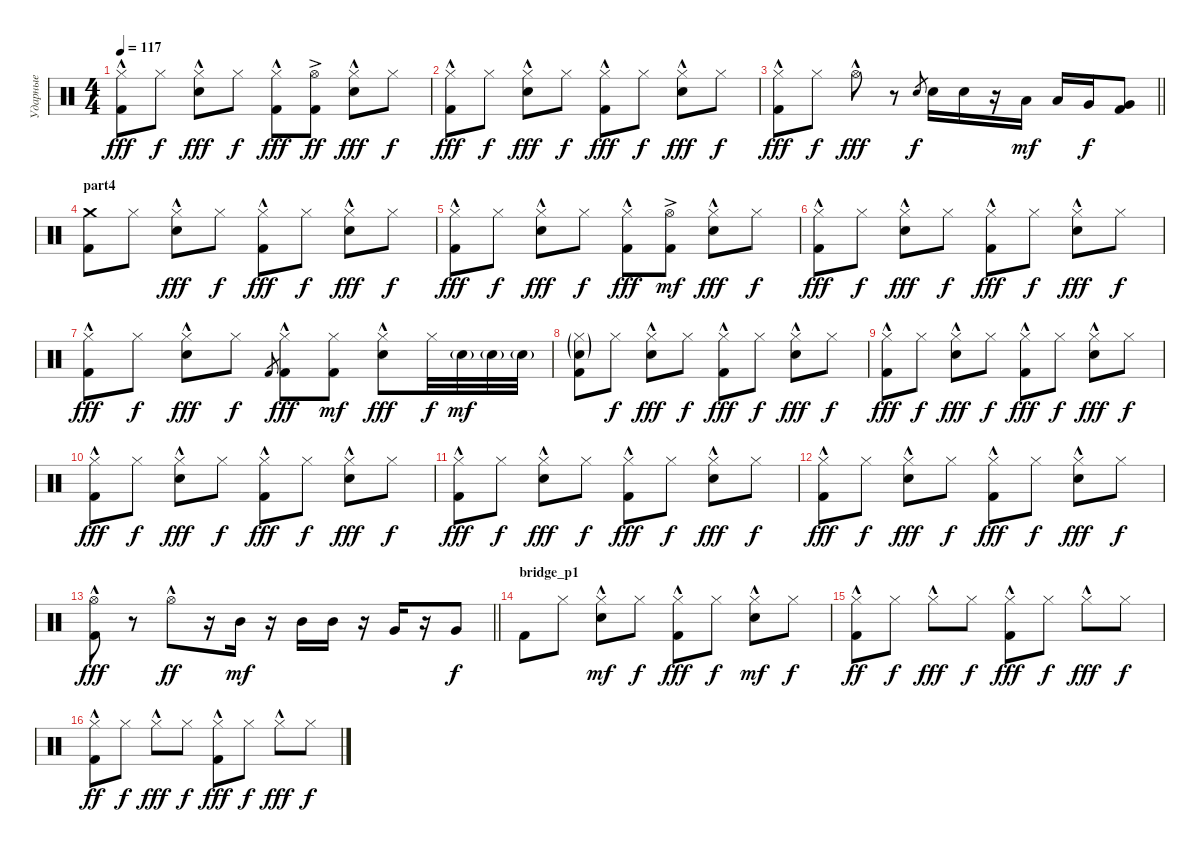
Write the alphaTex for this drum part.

\track ("Ударные" "Ударные") {instrument percussion}
\staff {score}
\articulation defaults
\ts (4 4)
\tempo 117
\clef neutral
\ks c
("Hi-Hat (closed)"{hac} "Kick (hit) 2").8{dy fff} "Hi-Hat (closed)".8{dy f} ("Hi-Hat (closed)"{hac} "Electric Snare (hit)").8{dy fff} "Hi-Hat (closed)".8{dy f} ("Hi-Hat (closed)"{hac} "Kick (hit) 2").8{dy fff} ("Hi-Hat (open)"{ac} "Kick (hit) 2").8{dy ff} ("Hi-Hat (closed)"{hac} "Electric Snare (hit)").8{dy fff} "Hi-Hat (closed)".8{dy f} |
("Hi-Hat (closed)"{hac} "Kick (hit) 2").8{dy fff} "Hi-Hat (closed)".8{dy f} ("Hi-Hat (closed)"{hac} "Electric Snare (hit)").8{dy fff} "Hi-Hat (closed)".8{dy f} ("Hi-Hat (closed)"{hac} "Kick (hit) 2").8{dy fff} "Hi-Hat (closed)".8{dy f} ("Hi-Hat (closed)"{hac} "Electric Snare (hit)").8{dy fff} "Hi-Hat (closed)".8{dy f} |
\barLineRight lightlight
("Hi-Hat (closed)"{hac} "Kick (hit) 2").8{dy fff} "Hi-Hat (closed)".8{dy f} "Hi-Hat (open)"{hac}.8{dy fff} r.8 "Electric Snare (hit)".8{gr dy f} "Electric Snare (hit)".16 "Electric Snare (hit)".16 r.16 "Low Tom (hit)".16{dy mf} "Low Tom (hit)".16 "Very Low Tom (hit)".16{dy f} ("Very Low Tom (hit)" "Kick (hit) 2").8 |
\section ("" "part4")
("Crash medium (hit)" "Kick (hit) 2").8 "Hi-Hat (closed)".8 ("Hi-Hat (closed)"{hac} "Electric Snare (hit)").8{dy fff} "Hi-Hat (closed)".8{dy f} ("Hi-Hat (closed)"{hac} "Kick (hit) 2").8{dy fff} "Hi-Hat (closed)".8{dy f} ("Hi-Hat (closed)"{hac} "Electric Snare (hit)").8{dy fff} "Hi-Hat (closed)".8{dy f} |
("Hi-Hat (closed)"{hac} "Kick (hit) 2").8{dy fff} "Hi-Hat (closed)".8{dy f} ("Hi-Hat (closed)"{hac} "Electric Snare (hit)").8{dy fff} "Hi-Hat (closed)".8{dy f} ("Hi-Hat (closed)"{hac} "Kick (hit) 2").8{dy fff} ("Hi-Hat (open)"{ac} "Kick (hit) 2").8{dy mf} ("Hi-Hat (closed)"{hac} "Electric Snare (hit)").8{dy fff} "Hi-Hat (closed)".8{dy f} |
("Hi-Hat (closed)"{hac} "Kick (hit) 2").8{dy fff} "Hi-Hat (closed)".8{dy f} ("Hi-Hat (closed)"{hac} "Electric Snare (hit)").8{dy fff} "Hi-Hat (closed)".8{dy f} ("Hi-Hat (closed)"{hac} "Kick (hit) 2").8{dy fff} "Hi-Hat (closed)".8{dy f} ("Hi-Hat (closed)"{hac} "Electric Snare (hit)").8{dy fff} "Hi-Hat (closed)".8{dy f} |
("Hi-Hat (closed)"{hac} "Kick (hit) 2").8{dy fff} "Hi-Hat (closed)".8{dy f} ("Hi-Hat (closed)"{hac} "Electric Snare (hit)").8{dy fff} "Hi-Hat (closed)".8{dy f} "Kick (hit) 2".8{gr} ("Hi-Hat (closed)"{hac} "Kick (hit) 2").8{dy fff} ("Hi-Hat (closed)" "Kick (hit) 2").8{dy mf} ("Hi-Hat (closed)"{hac} "Electric Snare (hit)").8{dy fff} "Hi-Hat (closed)".32{dy f} "Electric Snare (hit)"{g}.32{dy mf} "Electric Snare (hit)"{g}.32 "Electric Snare (hit)"{g}.32 |
("Hi-Hat (closed)"{g} "Electric Snare (hit)"{g} "Kick (hit) 2").8 "Hi-Hat (closed)".8{dy f} ("Hi-Hat (closed)"{hac} "Electric Snare (hit)").8{dy fff} "Hi-Hat (closed)".8{dy f} ("Hi-Hat (closed)"{hac} "Kick (hit) 2").8{dy fff} "Hi-Hat (closed)".8{dy f} ("Hi-Hat (closed)"{hac} "Electric Snare (hit)").8{dy fff} "Hi-Hat (closed)".8{dy f} |
("Hi-Hat (closed)"{hac} "Kick (hit) 2").8{dy fff} "Hi-Hat (closed)".8{dy f} ("Hi-Hat (closed)"{hac} "Electric Snare (hit)").8{dy fff} "Hi-Hat (closed)".8{dy f} ("Hi-Hat (closed)"{hac} "Kick (hit) 2").8{dy fff} "Hi-Hat (closed)".8{dy f} ("Hi-Hat (closed)"{hac} "Electric Snare (hit)").8{dy fff} "Hi-Hat (closed)".8{dy f} |
("Hi-Hat (closed)"{hac} "Kick (hit) 2").8{dy fff} "Hi-Hat (closed)".8{dy f} ("Hi-Hat (closed)"{hac} "Electric Snare (hit)").8{dy fff} "Hi-Hat (closed)".8{dy f} ("Hi-Hat (closed)"{hac} "Kick (hit) 2").8{dy fff} "Hi-Hat (closed)".8{dy f} ("Hi-Hat (closed)"{hac} "Electric Snare (hit)").8{dy fff} "Hi-Hat (closed)".8{dy f} |
("Hi-Hat (closed)"{hac} "Kick (hit) 2").8{dy fff} "Hi-Hat (closed)".8{dy f} ("Hi-Hat (closed)"{hac} "Electric Snare (hit)").8{dy fff} "Hi-Hat (closed)".8{dy f} ("Hi-Hat (closed)"{hac} "Kick (hit) 2").8{dy fff} "Hi-Hat (closed)".8{dy f} ("Hi-Hat (closed)"{hac} "Electric Snare (hit)").8{dy fff} "Hi-Hat (closed)".8{dy f} |
("Hi-Hat (closed)"{hac} "Kick (hit) 2").8{dy fff} "Hi-Hat (closed)".8{dy f} ("Hi-Hat (closed)"{hac} "Electric Snare (hit)").8{dy fff} "Hi-Hat (closed)".8{dy f} ("Hi-Hat (closed)"{hac} "Kick (hit) 2").8{dy fff} "Hi-Hat (closed)".8{dy f} ("Hi-Hat (closed)"{hac} "Electric Snare (hit)").8{dy fff} "Hi-Hat (closed)".8{dy f} |
\barLineRight lightlight
("Hi-Hat (open)"{hac} "Kick (hit) 2").8{dy fff} r.8 "Hi-Hat (open)"{hac}.8{dy ff} r.16 "Mid Tom (hit)".16{dy mf} r.16 "Mid Tom (hit)".16 "Mid Tom (hit)".16 r.16 "Very Low Tom (hit)".16 r.16 "Very Low Tom (hit)".8{dy f} |
\section ("" "bridge_p1")
"Kick (hit) 2".8 "Hi-Hat (closed)".8 ("Hi-Hat (closed)"{hac} "Electric Snare (hit)").8{dy mf} "Hi-Hat (closed)".8{dy f} ("Hi-Hat (closed)"{hac} "Kick (hit) 2").8{dy fff} "Hi-Hat (closed)".8{dy f} ("Hi-Hat (closed)"{hac} "Electric Snare (hit)").8{dy mf} "Hi-Hat (closed)".8{dy f} |
("Hi-Hat (closed)"{hac} "Kick (hit) 2").8{dy ff} "Hi-Hat (closed)".8{dy f} "Hi-Hat (closed)"{hac}.8{dy fff} "Hi-Hat (closed)".8{dy f} ("Hi-Hat (closed)"{hac} "Kick (hit) 2").8{dy fff} "Hi-Hat (closed)".8{dy f} "Hi-Hat (closed)"{hac}.8{dy fff} "Hi-Hat (closed)".8{dy f} |
("Hi-Hat (closed)"{hac} "Kick (hit) 2").8{dy ff} "Hi-Hat (closed)".8{dy f} "Hi-Hat (closed)"{hac}.8{dy fff} "Hi-Hat (closed)".8{dy f} ("Hi-Hat (closed)"{hac} "Kick (hit) 2").8{dy fff} "Hi-Hat (closed)".8{dy f} "Hi-Hat (closed)"{hac}.8{dy fff} "Hi-Hat (closed)".8{dy f}
